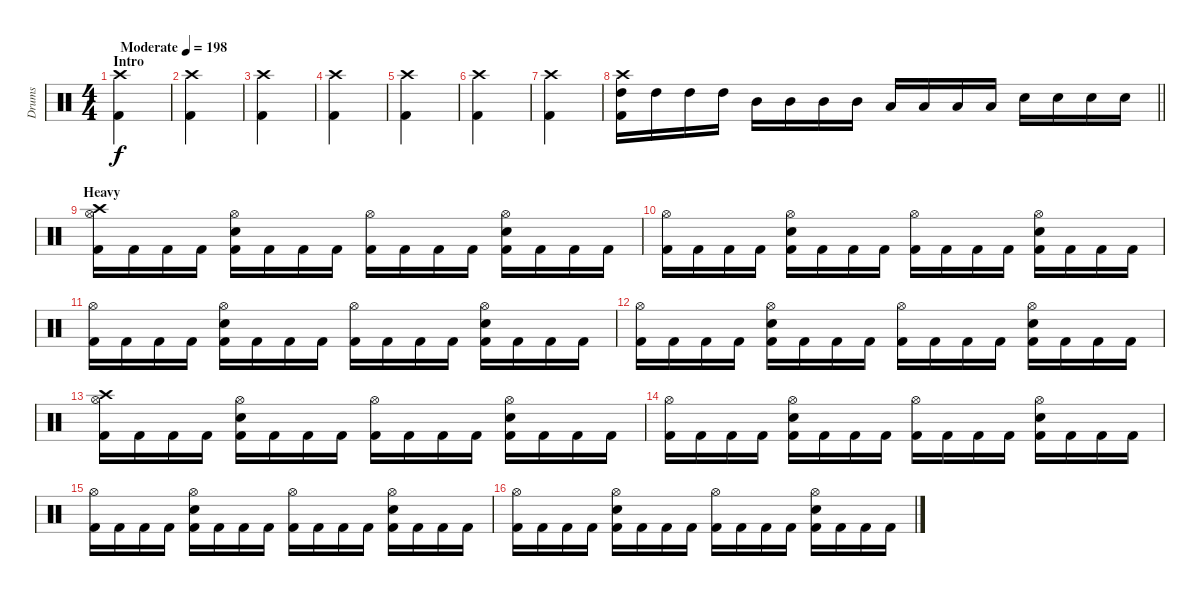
\track ("Drums" "Drums") {instrument percussion}
\staff {score}
\articulation defaults
\ts (4 4)
\section ("" "Intro")
\tempo (198 "Moderate")
\clef neutral
\ks c
("Crash high (hit)" "Kick (hit) 2").4{dy f} |
("Crash high (hit)" "Kick (hit) 2").4 |
("Crash high (hit)" "Kick (hit) 2").4 |
("Crash high (hit)" "Kick (hit) 2").4 |
("Crash high (hit)" "Kick (hit) 2").4 |
("Crash high (hit)" "Kick (hit) 2").4 |
("Crash high (hit)" "Kick (hit) 2").4 |
\barLineRight lightlight
("Crash high (hit)" "High Tom (hit)" "Kick (hit) 2").16 "High Tom (hit)".16 "High Tom (hit)".16 "High Tom (hit)".16 "Mid Tom (hit)".16 "Mid Tom (hit)".16 "Mid Tom (hit)".16 "Mid Tom (hit)".16 "Low Tom (hit)".16 "Low Tom (hit)".16 "Low Tom (hit)".16 "Low Tom (hit)".16 "Snare (hit) 2".16 "Snare (hit) 2".16 "Snare (hit) 2".16 "Snare (hit) 2".16 |
\section ("" "Heavy")
("Crash high (hit)" "Hi-Hat (open)" "Kick (hit) 2").16 "Kick (hit) 2".16 "Kick (hit) 2".16 "Kick (hit) 2".16 ("Hi-Hat (open)" "Snare (hit) 2" "Kick (hit) 2").16 "Kick (hit) 2".16 "Kick (hit) 2".16 "Kick (hit) 2".16 ("Hi-Hat (open)" "Kick (hit) 2").16 "Kick (hit) 2".16 "Kick (hit) 2".16 "Kick (hit) 2".16 ("Hi-Hat (open)" "Snare (hit) 2" "Kick (hit) 2").16 "Kick (hit) 2".16 "Kick (hit) 2".16 "Kick (hit) 2".16 |
("Hi-Hat (open)" "Kick (hit) 2").16 "Kick (hit) 2".16 "Kick (hit) 2".16 "Kick (hit) 2".16 ("Hi-Hat (open)" "Snare (hit) 2" "Kick (hit) 2").16 "Kick (hit) 2".16 "Kick (hit) 2".16 "Kick (hit) 2".16 ("Hi-Hat (open)" "Kick (hit) 2").16 "Kick (hit) 2".16 "Kick (hit) 2".16 "Kick (hit) 2".16 ("Hi-Hat (open)" "Snare (hit) 2" "Kick (hit) 2").16 "Kick (hit) 2".16 "Kick (hit) 2".16 "Kick (hit) 2".16 |
("Hi-Hat (open)" "Kick (hit) 2").16 "Kick (hit) 2".16 "Kick (hit) 2".16 "Kick (hit) 2".16 ("Hi-Hat (open)" "Snare (hit) 2" "Kick (hit) 2").16 "Kick (hit) 2".16 "Kick (hit) 2".16 "Kick (hit) 2".16 ("Hi-Hat (open)" "Kick (hit) 2").16 "Kick (hit) 2".16 "Kick (hit) 2".16 "Kick (hit) 2".16 ("Hi-Hat (open)" "Snare (hit) 2" "Kick (hit) 2").16 "Kick (hit) 2".16 "Kick (hit) 2".16 "Kick (hit) 2".16 |
("Hi-Hat (open)" "Kick (hit) 2").16 "Kick (hit) 2".16 "Kick (hit) 2".16 "Kick (hit) 2".16 ("Hi-Hat (open)" "Snare (hit) 2" "Kick (hit) 2").16 "Kick (hit) 2".16 "Kick (hit) 2".16 "Kick (hit) 2".16 ("Hi-Hat (open)" "Kick (hit) 2").16 "Kick (hit) 2".16 "Kick (hit) 2".16 "Kick (hit) 2".16 ("Hi-Hat (open)" "Snare (hit) 2" "Kick (hit) 2").16 "Kick (hit) 2".16 "Kick (hit) 2".16 "Kick (hit) 2".16 |
("Crash high (hit)" "Hi-Hat (open)" "Kick (hit) 2").16 "Kick (hit) 2".16 "Kick (hit) 2".16 "Kick (hit) 2".16 ("Hi-Hat (open)" "Snare (hit) 2" "Kick (hit) 2").16 "Kick (hit) 2".16 "Kick (hit) 2".16 "Kick (hit) 2".16 ("Hi-Hat (open)" "Kick (hit) 2").16 "Kick (hit) 2".16 "Kick (hit) 2".16 "Kick (hit) 2".16 ("Hi-Hat (open)" "Snare (hit) 2" "Kick (hit) 2").16 "Kick (hit) 2".16 "Kick (hit) 2".16 "Kick (hit) 2".16 |
("Hi-Hat (open)" "Kick (hit) 2").16 "Kick (hit) 2".16 "Kick (hit) 2".16 "Kick (hit) 2".16 ("Hi-Hat (open)" "Snare (hit) 2" "Kick (hit) 2").16 "Kick (hit) 2".16 "Kick (hit) 2".16 "Kick (hit) 2".16 ("Hi-Hat (open)" "Kick (hit) 2").16 "Kick (hit) 2".16 "Kick (hit) 2".16 "Kick (hit) 2".16 ("Hi-Hat (open)" "Snare (hit) 2" "Kick (hit) 2").16 "Kick (hit) 2".16 "Kick (hit) 2".16 "Kick (hit) 2".16 |
("Hi-Hat (open)" "Kick (hit) 2").16 "Kick (hit) 2".16 "Kick (hit) 2".16 "Kick (hit) 2".16 ("Hi-Hat (open)" "Snare (hit) 2" "Kick (hit) 2").16 "Kick (hit) 2".16 "Kick (hit) 2".16 "Kick (hit) 2".16 ("Hi-Hat (open)" "Kick (hit) 2").16 "Kick (hit) 2".16 "Kick (hit) 2".16 "Kick (hit) 2".16 ("Hi-Hat (open)" "Snare (hit) 2" "Kick (hit) 2").16 "Kick (hit) 2".16 "Kick (hit) 2".16 "Kick (hit) 2".16 |
("Hi-Hat (open)" "Kick (hit) 2").16 "Kick (hit) 2".16 "Kick (hit) 2".16 "Kick (hit) 2".16 ("Hi-Hat (open)" "Snare (hit) 2" "Kick (hit) 2").16 "Kick (hit) 2".16 "Kick (hit) 2".16 "Kick (hit) 2".16 ("Hi-Hat (open)" "Kick (hit) 2").16 "Kick (hit) 2".16 "Kick (hit) 2".16 "Kick (hit) 2".16 ("Hi-Hat (open)" "Snare (hit) 2" "Kick (hit) 2").16 "Kick (hit) 2".16 "Kick (hit) 2".16 "Kick (hit) 2".16
